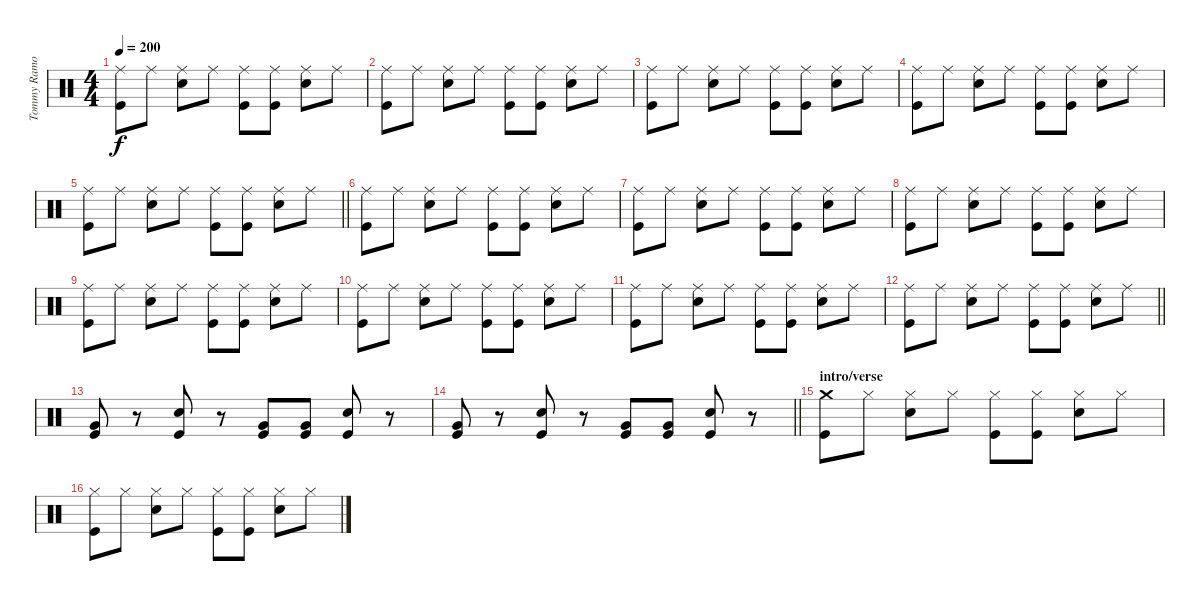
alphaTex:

\track ("Tommy Ramone" "Tommy Ramo") {instrument percussion}
\staff {score}
\articulation defaults
\ts (4 4)
\tempo 200
\clef neutral
\ks c
("Ride (middle)" "Kick (hit)").8{dy f} "Ride (middle)".8 ("Ride (middle)" "Electric Snare (hit)").8 "Ride (middle)".8 ("Ride (middle)" "Kick (hit)").8 ("Ride (middle)" "Kick (hit)").8 ("Ride (middle)" "Electric Snare (hit)").8 "Ride (middle)".8 |
("Ride (middle)" "Kick (hit)").8 "Ride (middle)".8 ("Ride (middle)" "Electric Snare (hit)").8 "Ride (middle)".8 ("Ride (middle)" "Kick (hit)").8 ("Ride (middle)" "Kick (hit)").8 ("Ride (middle)" "Electric Snare (hit)").8 "Ride (middle)".8 |
("Ride (middle)" "Kick (hit)").8 "Ride (middle)".8 ("Ride (middle)" "Electric Snare (hit)").8 "Ride (middle)".8 ("Ride (middle)" "Kick (hit)").8 ("Ride (middle)" "Kick (hit)").8 ("Ride (middle)" "Electric Snare (hit)").8 "Ride (middle)".8 |
("Ride (middle)" "Kick (hit)").8 "Ride (middle)".8 ("Ride (middle)" "Electric Snare (hit)").8 "Ride (middle)".8 ("Ride (middle)" "Kick (hit)").8 ("Ride (middle)" "Kick (hit)").8 ("Ride (middle)" "Electric Snare (hit)").8 "Ride (middle)".8 |
\barLineRight lightlight
("Ride (middle)" "Kick (hit)").8 "Ride (middle)".8 ("Ride (middle)" "Electric Snare (hit)").8 "Ride (middle)".8 ("Ride (middle)" "Kick (hit)").8 ("Ride (middle)" "Kick (hit)").8 ("Ride (middle)" "Electric Snare (hit)").8 "Ride (middle)".8 |
("Ride (middle)" "Kick (hit)").8 "Ride (middle)".8 ("Ride (middle)" "Electric Snare (hit)").8 "Ride (middle)".8 ("Ride (middle)" "Kick (hit)").8 ("Ride (middle)" "Kick (hit)").8 ("Ride (middle)" "Electric Snare (hit)").8 "Ride (middle)".8 |
("Ride (middle)" "Kick (hit)").8 "Ride (middle)".8 ("Ride (middle)" "Electric Snare (hit)").8 "Ride (middle)".8 ("Ride (middle)" "Kick (hit)").8 ("Ride (middle)" "Kick (hit)").8 ("Ride (middle)" "Electric Snare (hit)").8 "Ride (middle)".8 |
("Ride (middle)" "Kick (hit)").8 "Ride (middle)".8 ("Ride (middle)" "Electric Snare (hit)").8 "Ride (middle)".8 ("Ride (middle)" "Kick (hit)").8 ("Ride (middle)" "Kick (hit)").8 ("Ride (middle)" "Electric Snare (hit)").8 "Ride (middle)".8 |
("Ride (middle)" "Kick (hit)").8 "Ride (middle)".8 ("Ride (middle)" "Electric Snare (hit)").8 "Ride (middle)".8 ("Ride (middle)" "Kick (hit)").8 ("Ride (middle)" "Kick (hit)").8 ("Ride (middle)" "Electric Snare (hit)").8 "Ride (middle)".8 |
("Ride (middle)" "Kick (hit)").8 "Ride (middle)".8 ("Ride (middle)" "Electric Snare (hit)").8 "Ride (middle)".8 ("Ride (middle)" "Kick (hit)").8 ("Ride (middle)" "Kick (hit)").8 ("Ride (middle)" "Electric Snare (hit)").8 "Ride (middle)".8 |
("Ride (middle)" "Kick (hit)").8 "Ride (middle)".8 ("Ride (middle)" "Electric Snare (hit)").8 "Ride (middle)".8 ("Ride (middle)" "Kick (hit)").8 ("Ride (middle)" "Kick (hit)").8 ("Ride (middle)" "Electric Snare (hit)").8 "Ride (middle)".8 |
\barLineRight lightlight
("Ride (middle)" "Kick (hit)").8 "Ride (middle)".8 ("Ride (middle)" "Electric Snare (hit)").8 "Ride (middle)".8 ("Ride (middle)" "Kick (hit)").8 ("Ride (middle)" "Kick (hit)").8 ("Ride (middle)" "Electric Snare (hit)").8 "Ride (middle)".8 |
("Very Low Tom (hit)" "Kick (hit)").8 r.8 ("Electric Snare (hit)" "Kick (hit)").8 r.8 ("Very Low Tom (hit)" "Kick (hit)").8 ("Very Low Tom (hit)" "Kick (hit)").8 ("Electric Snare (hit)" "Kick (hit)").8 r.8 |
\barLineRight lightlight
("Very Low Tom (hit)" "Kick (hit)").8 r.8 ("Electric Snare (hit)" "Kick (hit)").8 r.8 ("Very Low Tom (hit)" "Kick (hit)").8 ("Very Low Tom (hit)" "Kick (hit)").8 ("Electric Snare (hit)" "Kick (hit)").8 r.8 |
\section ("" "intro/verse")
("Crash medium (hit)" "Kick (hit)").8 "Hi-Hat (closed)".8 ("Hi-Hat (closed)" "Electric Snare (hit)").8 "Hi-Hat (closed)".8 ("Hi-Hat (closed)" "Kick (hit)").8 ("Hi-Hat (closed)" "Kick (hit)").8 ("Hi-Hat (closed)" "Electric Snare (hit)").8 "Hi-Hat (closed)".8 |
("Hi-Hat (closed)" "Kick (hit)").8 "Hi-Hat (closed)".8 ("Hi-Hat (closed)" "Electric Snare (hit)").8 "Hi-Hat (closed)".8 ("Hi-Hat (closed)" "Kick (hit)").8 ("Hi-Hat (closed)" "Kick (hit)").8 ("Hi-Hat (closed)" "Electric Snare (hit)").8 "Hi-Hat (closed)".8
